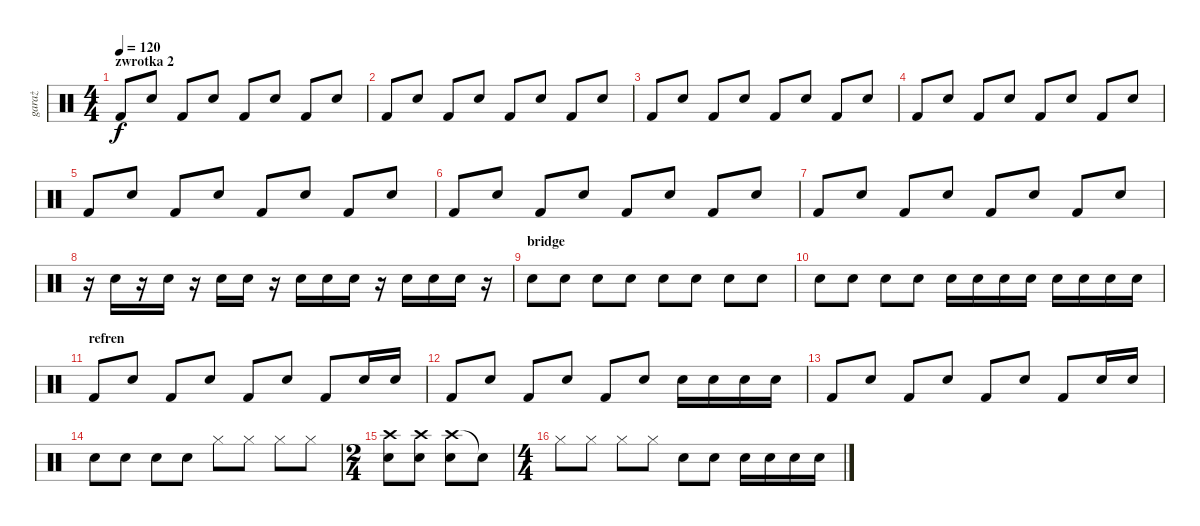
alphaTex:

\track ("garaż" "garaż") {instrument percussion}
\staff {score}
\articulation defaults
\ts (4 4)
\section ("" "zwrotka 2")
\tempo 120
\clef neutral
\ks c "Kick (hit) 2".8{dy f} "Snare (hit) 2".8 "Kick (hit) 2".8 "Snare (hit) 2".8 "Kick (hit) 2".8 "Snare (hit) 2".8 "Kick (hit) 2".8 "Snare (hit) 2".8
|
"Kick (hit) 2".8 "Snare (hit) 2".8 "Kick (hit) 2".8 "Snare (hit) 2".8 "Kick (hit) 2".8 "Snare (hit) 2".8 "Kick (hit) 2".8 "Snare (hit) 2".8 |
"Kick (hit) 2".8 "Snare (hit) 2".8 "Kick (hit) 2".8 "Snare (hit) 2".8 "Kick (hit) 2".8 "Snare (hit) 2".8 "Kick (hit) 2".8 "Snare (hit) 2".8 |
"Kick (hit) 2".8 "Snare (hit) 2".8 "Kick (hit) 2".8 "Snare (hit) 2".8 "Kick (hit) 2".8 "Snare (hit) 2".8 "Kick (hit) 2".8 "Snare (hit) 2".8 |
"Kick (hit) 2".8 "Snare (hit) 2".8 "Kick (hit) 2".8 "Snare (hit) 2".8 "Kick (hit) 2".8 "Snare (hit) 2".8 "Kick (hit) 2".8 "Snare (hit) 2".8 |
"Kick (hit) 2".8 "Snare (hit) 2".8 "Kick (hit) 2".8 "Snare (hit) 2".8 "Kick (hit) 2".8 "Snare (hit) 2".8 "Kick (hit) 2".8 "Snare (hit) 2".8 |
"Kick (hit) 2".8 "Snare (hit) 2".8 "Kick (hit) 2".8 "Snare (hit) 2".8 "Kick (hit) 2".8 "Snare (hit) 2".8 "Kick (hit) 2".8 "Snare (hit) 2".8 |
r.16 "Snare (hit) 2".16 r.16 "Snare (hit) 2".16 r.16 "Snare (hit) 2".16 "Snare (hit) 2".16 r.16 "Snare (hit) 2".16 "Snare (hit) 2".16 "Snare (hit) 2".16 r.16 "Snare (hit) 2".16 "Snare (hit) 2".16 "Snare (hit) 2".16 r.16 |
\section ("" "bridge")
"Snare (hit) 2".8 "Snare (hit) 2".8 "Snare (hit) 2".8 "Snare (hit) 2".8 "Snare (hit) 2".8 "Snare (hit) 2".8 "Snare (hit) 2".8 "Snare (hit) 2".8 |
"Snare (hit) 2".8 "Snare (hit) 2".8 "Snare (hit) 2".8 "Snare (hit) 2".8 "Snare (hit) 2".16 "Snare (hit) 2".16 "Snare (hit) 2".16 "Snare (hit) 2".16 "Snare (hit) 2".16 "Snare (hit) 2".16 "Snare (hit) 2".16 "Snare (hit) 2".16 |
\section ("" "refren")
"Kick (hit) 2".8 "Snare (hit) 2".8 "Kick (hit) 2".8 "Snare (hit) 2".8 "Kick (hit) 2".8 "Snare (hit) 2".8 "Kick (hit) 2".8 "Snare (hit) 2".16 "Snare (hit) 2".16 |
"Kick (hit) 2".8 "Snare (hit) 2".8 "Kick (hit) 2".8 "Snare (hit) 2".8 "Kick (hit) 2".8 "Snare (hit) 2".8 "Snare (hit) 2".16 "Snare (hit) 2".16 "Snare (hit) 2".16 "Snare (hit) 2".16 |
"Kick (hit) 2".8 "Snare (hit) 2".8 "Kick (hit) 2".8 "Snare (hit) 2".8 "Kick (hit) 2".8 "Snare (hit) 2".8 "Kick (hit) 2".8 "Snare (hit) 2".16 "Snare (hit) 2".16 |
"Snare (hit) 2".8 "Snare (hit) 2".8 "Snare (hit) 2".8 "Snare (hit) 2".8 "Hi-Hat (closed)".8 "Hi-Hat (closed)".8 "Hi-Hat (closed)".8 "Hi-Hat (closed)".8 |
\ts (2 4)
("Crash high (hit)" "Snare (hit) 2").8 ("Crash high (hit)" "Snare (hit) 2").8 ("Crash high (hit)" "Snare (hit) 2").8 "Snare (hit)"{t}.8 |
\ts (4 4)
"Hi-Hat (closed)".8 "Hi-Hat (closed)".8 "Hi-Hat (closed)".8 "Hi-Hat (closed)".8 "Snare (hit) 2".8 "Snare (hit) 2".8 "Snare (hit) 2".16 "Snare (hit) 2".16 "Snare (hit) 2".16 "Snare (hit) 2".16
